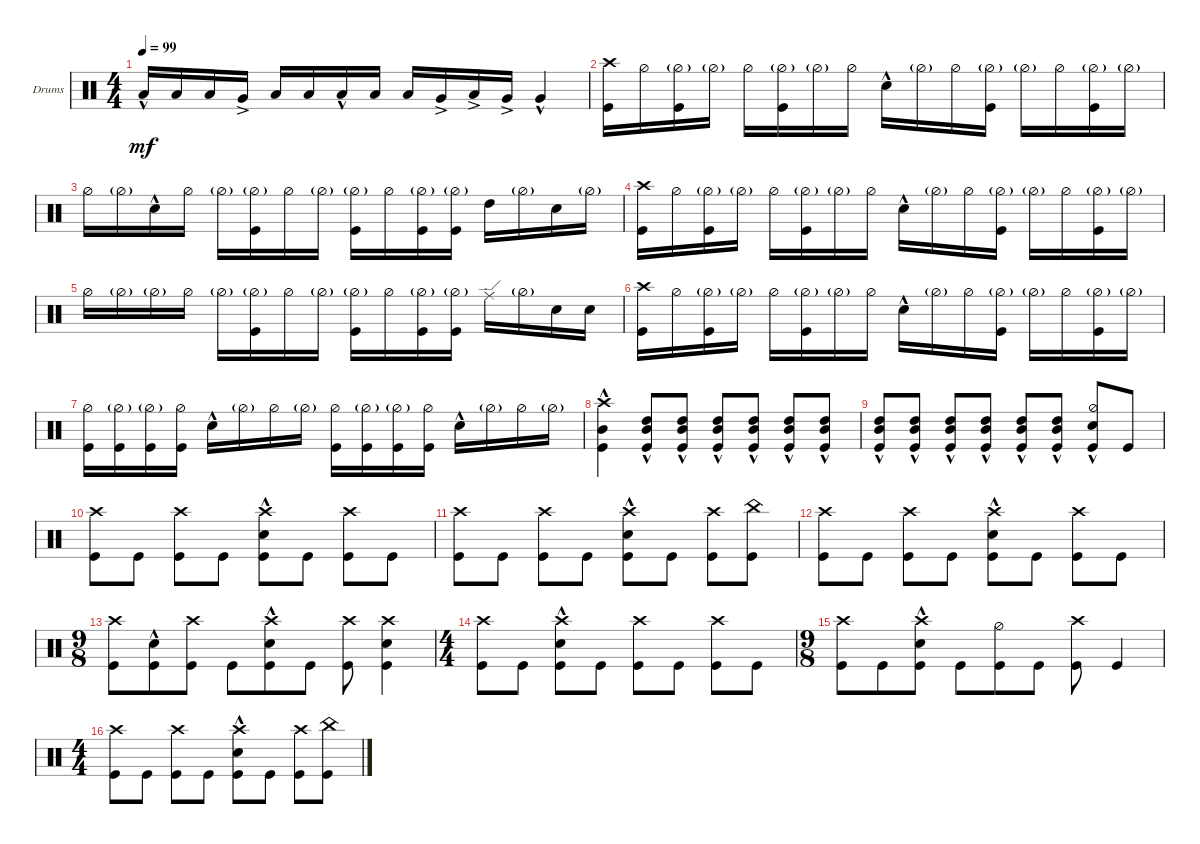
\defaultSystemsLayout 4
\bracketExtendMode groupsimilarinstruments
\firstSystemTrackNameOrientation horizontal
\otherSystemsTrackNameOrientation horizontal
\track ("Drumkit" "Drums") {instrument percussion}
\staff {score}
\articulation defaults
\ts (4 4)
\tempo 99
\clef neutral
\ks c "Low Tom (hit)"{hac}.16{dy mf} "Low Tom (hit)".16 "Low Tom (hit)".16 "Very Low Tom (hit)"{ac}.16 "Low Tom (hit)".16 "Low Tom (hit)".16 "Low Tom (hit)"{hac}.16 "Low Tom (hit)".16 "Low Tom (hit)".16 "Very Low Tom (hit)"{ac}.16 "Low Tom (hit)"{ac}.16 "Very Low Tom (hit)"{ac}.16 "Very Low Tom (hit)"{hac}.4
|
("Crash high (hit)" "Kick (hit)").16 "Hi-Hat (half)".16 ("Hi-Hat (half)"{g} "Kick (hit)").16 "Hi-Hat (half)"{g}.16 "Hi-Hat (half)".16 ("Hi-Hat (half)"{g} "Kick (hit)").16 "Hi-Hat (half)"{g}.16 "Hi-Hat (half)".16 "Snare (hit) 2"{hac}.16 "Hi-Hat (half)"{g}.16 "Hi-Hat (half)".16 ("Hi-Hat (half)"{g} "Kick (hit)").16 "Hi-Hat (half)"{g}.16 "Hi-Hat (half)".16 ("Hi-Hat (half)"{g} "Kick (hit)").16 "Hi-Hat (half)"{g}.16 |
"Hi-Hat (half)".16 "Hi-Hat (half)"{g}.16 "Snare (hit) 2"{hac}.16 "Hi-Hat (half)".16 "Hi-Hat (half)"{g}.16 ("Hi-Hat (half)"{g} "Kick (hit)").16 "Hi-Hat (half)".16 "Hi-Hat (half)"{g}.16 ("Hi-Hat (half)"{g} "Kick (hit)").16 "Hi-Hat (half)".16 ("Hi-Hat (half)"{g} "Kick (hit)").16 ("Hi-Hat (half)"{g} "Kick (hit)").16 "High Tom (hit)".16 "Hi-Hat (half)"{g}.16 "Snare (hit) 2".16 "Hi-Hat (half)"{g}.16 |
("Crash high (hit)" "Kick (hit)").16 "Hi-Hat (half)".16 ("Hi-Hat (half)"{g} "Kick (hit)").16 "Hi-Hat (half)"{g}.16 "Hi-Hat (half)".16 ("Hi-Hat (half)"{g} "Kick (hit)").16 "Hi-Hat (half)"{g}.16 "Hi-Hat (half)".16 "Snare (hit) 2"{hac}.16 "Hi-Hat (half)"{g}.16 "Hi-Hat (half)".16 ("Hi-Hat (half)"{g} "Kick (hit)").16 "Hi-Hat (half)"{g}.16 "Hi-Hat (half)".16 ("Hi-Hat (half)"{g} "Kick (hit)").16 "Hi-Hat (half)"{g}.16 |
"Hi-Hat (half)".16 "Hi-Hat (half)"{g}.16 "Hi-Hat (half)"{g}.16 "Hi-Hat (half)".16 "Hi-Hat (half)"{g}.16 ("Hi-Hat (half)"{g} "Kick (hit)").16 "Hi-Hat (half)".16 "Hi-Hat (half)"{g}.16 ("Hi-Hat (half)"{g} "Kick (hit)").16 "Hi-Hat (half)".16 ("Hi-Hat (half)"{g} "Kick (hit)").16 ("Hi-Hat (half)"{g} "Kick (hit)").16 "Ride (edge)".16 "Hi-Hat (half)"{g}.16 "Snare (hit) 2".16 "Snare (hit) 2".16 |
("Crash high (hit)" "Kick (hit)").16 "Hi-Hat (half)".16 ("Hi-Hat (half)"{g} "Kick (hit)").16 "Hi-Hat (half)"{g}.16 "Hi-Hat (half)".16 ("Hi-Hat (half)"{g} "Kick (hit)").16 "Hi-Hat (half)"{g}.16 "Hi-Hat (half)".16 "Snare (hit) 2"{hac}.16 "Hi-Hat (half)"{g}.16 "Hi-Hat (half)".16 ("Hi-Hat (half)"{g} "Kick (hit)").16 "Hi-Hat (half)"{g}.16 "Hi-Hat (half)".16 ("Hi-Hat (half)"{g} "Kick (hit)").16 "Hi-Hat (half)"{g}.16 |
("Hi-Hat (half)" "Kick (hit)").16 ("Hi-Hat (half)"{g} "Kick (hit)").16 ("Kick (hit)" "Hi-Hat (half)"{g}).16 ("Hi-Hat (half)" "Kick (hit)").16 "Snare (hit) 2"{hac}.16 "Hi-Hat (half)"{g}.16 "Hi-Hat (half)".16 "Hi-Hat (half)"{g}.16 ("Hi-Hat (half)" "Kick (hit)").16 ("Hi-Hat (half)"{g} "Kick (hit)").16 ("Kick (hit)" "Hi-Hat (half)"{g}).16 ("Hi-Hat (half)" "Kick (hit)").16 "Snare (hit) 2"{hac}.16 "Hi-Hat (half)"{g}.16 "Hi-Hat (half)".16 "Hi-Hat (half)"{g}.16 |
("Mid Tom (hit)"{hac} "Kick (hit)"{hac} "Crash high (hit)").4 ("Kick (hit)"{hac} "Mid Tom (hit)"{hac} "High Tom (hit)"{hac}).8 ("Kick (hit)"{hac} "Mid Tom (hit)"{hac} "High Tom (hit)"{hac}).8 ("Kick (hit)"{hac} "Mid Tom (hit)"{hac} "High Tom (hit)"{hac}).8 ("Kick (hit)"{hac} "Mid Tom (hit)"{hac} "High Tom (hit)"{hac}).8 ("Kick (hit)"{hac} "Mid Tom (hit)"{hac} "High Tom (hit)"{hac}).8 ("Kick (hit)"{hac} "Mid Tom (hit)"{hac} "High Tom (hit)"{hac}).8 |
("Kick (hit)"{hac} "Mid Tom (hit)"{hac} "High Tom (hit)"{hac}).8 ("Kick (hit)"{hac} "Mid Tom (hit)"{hac} "High Tom (hit)"{hac}).8 ("Kick (hit)"{hac} "Mid Tom (hit)"{hac} "High Tom (hit)"{hac}).8 ("Kick (hit)"{hac} "Mid Tom (hit)"{hac} "High Tom (hit)"{hac}).8 ("Kick (hit)"{hac} "Mid Tom (hit)"{hac} "High Tom (hit)"{hac}).8 ("Kick (hit)"{hac} "Mid Tom (hit)"{hac} "High Tom (hit)"{hac}).8 ("Kick (hit)"{hac} "Snare (hit) 2"{hac} "Hi-Hat (half)").8 "Kick (hit)".8 |
("Kick (hit)" "Crash high (hit)").8 "Kick (hit)".8 ("Kick (hit)" "Crash high (hit)").8 "Kick (hit)".8 ("Kick (hit)" "Crash high (hit)" "Snare (hit) 2"{hac}).8 "Kick (hit)".8 ("Kick (hit)" "Crash high (hit)").8 "Kick (hit)".8 |
("Kick (hit)" "Crash high (hit)").8 "Kick (hit)".8 ("Kick (hit)" "Crash high (hit)").8 "Kick (hit)".8 ("Kick (hit)" "Crash high (hit)" "Snare (hit) 2"{hac}).8 "Kick (hit)".8 ("Kick (hit)" "Crash high (hit)").8 ("Kick (hit)" "China (hit)").8 |
("Kick (hit)" "Crash high (hit)").8 "Kick (hit)".8 ("Kick (hit)" "Crash high (hit)").8 "Kick (hit)".8 ("Kick (hit)" "Crash high (hit)" "Snare (hit) 2"{hac}).8 "Kick (hit)".8 ("Kick (hit)" "Crash high (hit)").8 "Kick (hit)".8 |
\ts (9 8)
("Kick (hit)" "Crash high (hit)").8 ("Kick (hit)" "Snare (hit) 2"{hac}).8 ("Kick (hit)" "Crash high (hit)").8 "Kick (hit)".8 ("Kick (hit)" "Crash high (hit)" "Snare (hit) 2"{hac}).8 "Kick (hit)".8 ("Kick (hit)" "Crash high (hit)").8 ("Kick (hit)" "Snare (hit) 2" "Crash high (hit)").4 |
\ts (4 4)
("Kick (hit)" "Crash high (hit)").8 "Kick (hit)".8 ("Kick (hit)" "Crash high (hit)" "Snare (hit) 2"{hac}).8 "Kick (hit)".8 ("Kick (hit)" "Crash high (hit)").8 "Kick (hit)".8 ("Kick (hit)" "Crash high (hit)").8 "Kick (hit)".8 |
\ts (9 8)
("Kick (hit)" "Crash high (hit)").8 "Kick (hit)".8 ("Kick (hit)" "Crash high (hit)" "Snare (hit) 2"{hac}).8 "Kick (hit)".8 ("Kick (hit)" "Hi-Hat (half)").8 "Kick (hit)".8 ("Kick (hit)" "Crash high (hit)").8 "Kick (hit)".4 |
\ts (4 4)
("Kick (hit)" "Crash high (hit)").8 "Kick (hit)".8 ("Kick (hit)" "Crash high (hit)").8 "Kick (hit)".8 ("Kick (hit)" "Crash high (hit)" "Snare (hit) 2"{hac}).8 "Kick (hit)".8 ("Kick (hit)" "Crash high (hit)").8 ("Kick (hit)" "China (hit)").8
